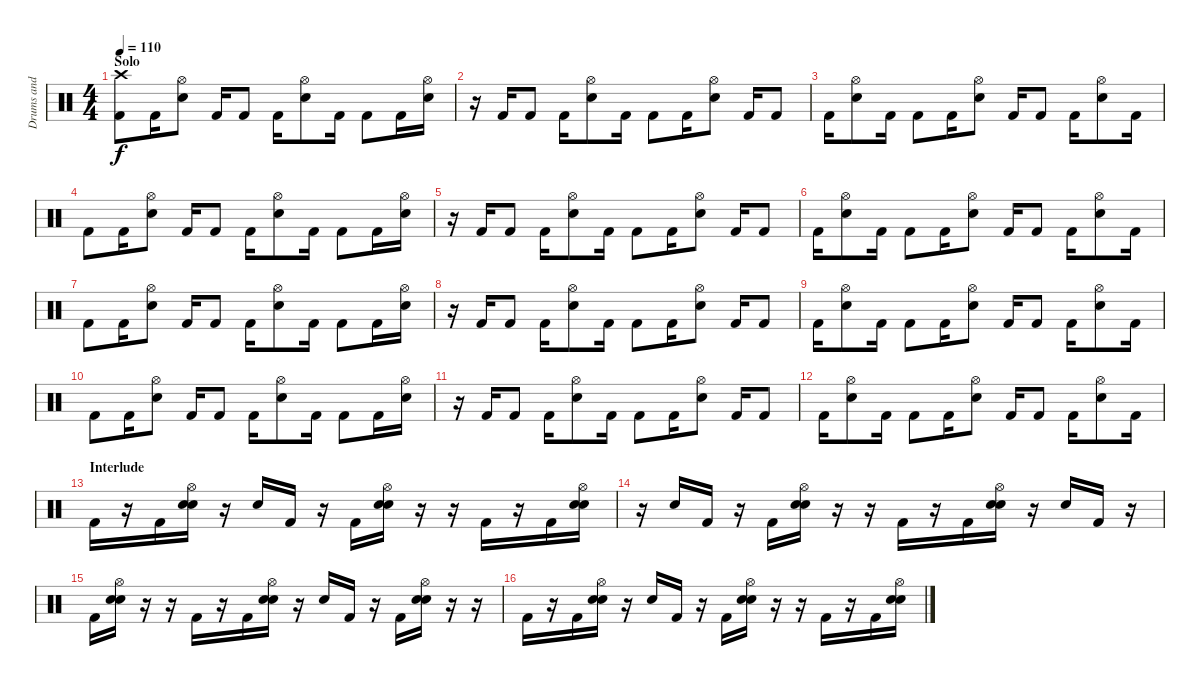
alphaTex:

\track ("Drums and Claps" "Drums and ") {instrument percussion}
\staff {score}
\articulation defaults
\ts (4 4)
\section ("" "Solo")
\tempo 110
\clef neutral
\ks c
("Crash high (hit)" "Kick (hit) 2").8{dy f} "Kick (hit) 2".16 ("Hi-Hat (open)" "Snare (hit) 2").8 "Kick (hit) 2".16 "Kick (hit) 2".8 "Kick (hit) 2".16 ("Hi-Hat (open)" "Snare (hit) 2").8 "Kick (hit) 2".16 "Kick (hit) 2".8 "Kick (hit) 2".16 ("Hi-Hat (open)" "Snare (hit) 2").16 |
r.16 "Kick (hit) 2".16 "Kick (hit) 2".8 "Kick (hit) 2".16 ("Hi-Hat (open)" "Snare (hit) 2").8 "Kick (hit) 2".16 "Kick (hit) 2".8 "Kick (hit) 2".16 ("Hi-Hat (open)" "Snare (hit) 2").8 "Kick (hit) 2".16 "Kick (hit) 2".8 |
"Kick (hit) 2".16 ("Hi-Hat (open)" "Snare (hit) 2").8 "Kick (hit) 2".16 "Kick (hit) 2".8 "Kick (hit) 2".16 ("Hi-Hat (open)" "Snare (hit) 2").8 "Kick (hit) 2".16 "Kick (hit) 2".8 "Kick (hit) 2".16 ("Hi-Hat (open)" "Snare (hit) 2").8 "Kick (hit) 2".16 |
"Kick (hit) 2".8 "Kick (hit) 2".16 ("Hi-Hat (open)" "Snare (hit) 2").8 "Kick (hit) 2".16 "Kick (hit) 2".8 "Kick (hit) 2".16 ("Hi-Hat (open)" "Snare (hit) 2").8 "Kick (hit) 2".16 "Kick (hit) 2".8 "Kick (hit) 2".16 ("Hi-Hat (open)" "Snare (hit) 2").16 |
r.16 "Kick (hit) 2".16 "Kick (hit) 2".8 "Kick (hit) 2".16 ("Hi-Hat (open)" "Snare (hit) 2").8 "Kick (hit) 2".16 "Kick (hit) 2".8 "Kick (hit) 2".16 ("Hi-Hat (open)" "Snare (hit) 2").8 "Kick (hit) 2".16 "Kick (hit) 2".8 |
"Kick (hit) 2".16 ("Hi-Hat (open)" "Snare (hit) 2").8 "Kick (hit) 2".16 "Kick (hit) 2".8 "Kick (hit) 2".16 ("Hi-Hat (open)" "Snare (hit) 2").8 "Kick (hit) 2".16 "Kick (hit) 2".8 "Kick (hit) 2".16 ("Hi-Hat (open)" "Snare (hit) 2").8 "Kick (hit) 2".16 |
"Kick (hit) 2".8 "Kick (hit) 2".16 ("Hi-Hat (open)" "Snare (hit) 2").8 "Kick (hit) 2".16 "Kick (hit) 2".8 "Kick (hit) 2".16 ("Hi-Hat (open)" "Snare (hit) 2").8 "Kick (hit) 2".16 "Kick (hit) 2".8 "Kick (hit) 2".16 ("Hi-Hat (open)" "Snare (hit) 2").16 |
r.16 "Kick (hit) 2".16 "Kick (hit) 2".8 "Kick (hit) 2".16 ("Hi-Hat (open)" "Snare (hit) 2").8 "Kick (hit) 2".16 "Kick (hit) 2".8 "Kick (hit) 2".16 ("Hi-Hat (open)" "Snare (hit) 2").8 "Kick (hit) 2".16 "Kick (hit) 2".8 |
"Kick (hit) 2".16 ("Hi-Hat (open)" "Snare (hit) 2").8 "Kick (hit) 2".16 "Kick (hit) 2".8 "Kick (hit) 2".16 ("Hi-Hat (open)" "Snare (hit) 2").8 "Kick (hit) 2".16 "Kick (hit) 2".8 "Kick (hit) 2".16 ("Hi-Hat (open)" "Snare (hit) 2").8 "Kick (hit) 2".16 |
"Kick (hit) 2".8 "Kick (hit) 2".16 ("Hi-Hat (open)" "Snare (hit) 2").8 "Kick (hit) 2".16 "Kick (hit) 2".8 "Kick (hit) 2".16 ("Hi-Hat (open)" "Snare (hit) 2").8 "Kick (hit) 2".16 "Kick (hit) 2".8 "Kick (hit) 2".16 ("Hi-Hat (open)" "Snare (hit) 2").16 |
r.16 "Kick (hit) 2".16 "Kick (hit) 2".8 "Kick (hit) 2".16 ("Hi-Hat (open)" "Snare (hit) 2").8 "Kick (hit) 2".16 "Kick (hit) 2".8 "Kick (hit) 2".16 ("Hi-Hat (open)" "Snare (hit) 2").8 "Kick (hit) 2".16 "Kick (hit) 2".8 |
"Kick (hit) 2".16 ("Hi-Hat (open)" "Snare (hit) 2").8 "Kick (hit) 2".16 "Kick (hit) 2".8 "Kick (hit) 2".16 ("Hi-Hat (open)" "Snare (hit) 2").8 "Kick (hit) 2".16 "Kick (hit) 2".8 "Kick (hit) 2".16 ("Hi-Hat (open)" "Snare (hit) 2").8 "Kick (hit) 2".16 |
\section ("" "Interlude")
"Kick (hit) 2".16 r.16 "Kick (hit) 2".16 ("Hi-Hat (open)" "Hand Clap (hit)" "Snare (hit) 2").16 r.16 "Hand Clap (hit)".16 "Kick (hit) 2".16 r.16 "Kick (hit) 2".16 ("Hi-Hat (open)" "Hand Clap (hit)" "Snare (hit) 2").16 r.16 r.16 "Kick (hit) 2".16 r.16 "Kick (hit) 2".16 ("Hi-Hat (open)" "Hand Clap (hit)" "Snare (hit) 2").16 |
r.16 "Hand Clap (hit)".16 "Kick (hit) 2".16 r.16 "Kick (hit) 2".16 ("Hi-Hat (open)" "Hand Clap (hit)" "Snare (hit) 2").16 r.16 r.16 "Kick (hit) 2".16 r.16 "Kick (hit) 2".16 ("Hi-Hat (open)" "Hand Clap (hit)" "Snare (hit) 2").16 r.16 "Hand Clap (hit)".16 "Kick (hit) 2".16 r.16 |
"Kick (hit) 2".16 ("Hi-Hat (open)" "Hand Clap (hit)" "Snare (hit) 2").16 r.16 r.16 "Kick (hit) 2".16 r.16 "Kick (hit) 2".16 ("Hi-Hat (open)" "Hand Clap (hit)" "Snare (hit) 2").16 r.16 "Hand Clap (hit)".16 "Kick (hit) 2".16 r.16 "Kick (hit) 2".16 ("Hi-Hat (open)" "Hand Clap (hit)" "Snare (hit) 2").16 r.16 r.16 |
"Kick (hit) 2".16 r.16 "Kick (hit) 2".16 ("Hi-Hat (open)" "Hand Clap (hit)" "Snare (hit) 2").16 r.16 "Hand Clap (hit)".16 "Kick (hit) 2".16 r.16 "Kick (hit) 2".16 ("Hi-Hat (open)" "Hand Clap (hit)" "Snare (hit) 2").16 r.16 r.16 "Kick (hit) 2".16 r.16 "Kick (hit) 2".16 ("Hi-Hat (open)" "Hand Clap (hit)" "Snare (hit) 2").16
